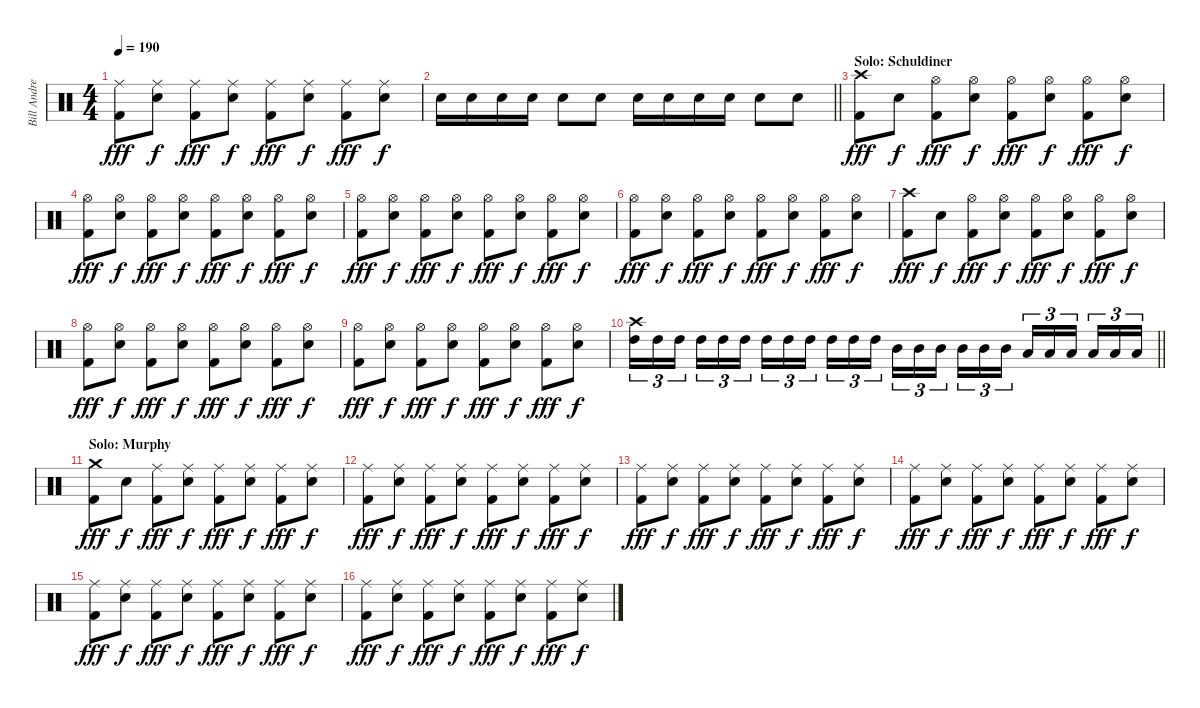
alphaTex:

\track ("Bill Andrews" "Bill Andre") {instrument percussion}
\staff {score}
\articulation defaults
\ts (4 4)
\tempo 190
\clef neutral
\ks c
("Ride (middle)" "Kick (hit) 2").8{dy fff} ("Ride (middle)" "Electric Snare (hit)").8{dy f} ("Ride (middle)" "Kick (hit) 2").8{dy fff} ("Ride (middle)" "Electric Snare (hit)").8{dy f} ("Ride (middle)" "Kick (hit) 2").8{dy fff} ("Ride (middle)" "Electric Snare (hit)").8{dy f} ("Ride (middle)" "Kick (hit) 2").8{dy fff} ("Ride (middle)" "Electric Snare (hit)").8{dy f} |
\barLineRight lightlight "Electric Snare (hit)".16 "Electric Snare (hit)".16 "Electric Snare (hit)".16 "Electric Snare (hit)".16 "Electric Snare (hit)".8 "Electric Snare (hit)".8 "Electric Snare (hit)".16 "Electric Snare (hit)".16 "Electric Snare (hit)".16 "Electric Snare (hit)".16 "Electric Snare (hit)".8 "Electric Snare (hit)".8
|
\section ("" "Solo: Schuldiner")
("Crash high (hit)" "Kick (hit) 2").8{dy fff} "Electric Snare (hit)".8{dy f} ("Hi-Hat (open)" "Kick (hit) 2").8{dy fff} ("Hi-Hat (open)" "Electric Snare (hit)").8{dy f} ("Hi-Hat (open)" "Kick (hit) 2").8{dy fff} ("Hi-Hat (open)" "Electric Snare (hit)").8{dy f} ("Hi-Hat (open)" "Kick (hit) 2").8{dy fff} ("Hi-Hat (open)" "Electric Snare (hit)").8{dy f} |
("Hi-Hat (open)" "Kick (hit) 2").8{dy fff} ("Hi-Hat (open)" "Electric Snare (hit)").8{dy f} ("Hi-Hat (open)" "Kick (hit) 2").8{dy fff} ("Hi-Hat (open)" "Electric Snare (hit)").8{dy f} ("Hi-Hat (open)" "Kick (hit) 2").8{dy fff} ("Hi-Hat (open)" "Electric Snare (hit)").8{dy f} ("Hi-Hat (open)" "Kick (hit) 2").8{dy fff} ("Hi-Hat (open)" "Electric Snare (hit)").8{dy f} |
("Hi-Hat (open)" "Kick (hit) 2").8{dy fff} ("Hi-Hat (open)" "Electric Snare (hit)").8{dy f} ("Hi-Hat (open)" "Kick (hit) 2").8{dy fff} ("Hi-Hat (open)" "Electric Snare (hit)").8{dy f} ("Hi-Hat (open)" "Kick (hit) 2").8{dy fff} ("Hi-Hat (open)" "Electric Snare (hit)").8{dy f} ("Hi-Hat (open)" "Kick (hit) 2").8{dy fff} ("Hi-Hat (open)" "Electric Snare (hit)").8{dy f} |
("Hi-Hat (open)" "Kick (hit) 2").8{dy fff} ("Hi-Hat (open)" "Electric Snare (hit)").8{dy f} ("Hi-Hat (open)" "Kick (hit) 2").8{dy fff} ("Hi-Hat (open)" "Electric Snare (hit)").8{dy f} ("Hi-Hat (open)" "Kick (hit) 2").8{dy fff} ("Hi-Hat (open)" "Electric Snare (hit)").8{dy f} ("Hi-Hat (open)" "Kick (hit) 2").8{dy fff} ("Hi-Hat (open)" "Electric Snare (hit)").8{dy f} |
("Crash high (hit)" "Kick (hit) 2").8{dy fff} "Electric Snare (hit)".8{dy f} ("Hi-Hat (open)" "Kick (hit) 2").8{dy fff} ("Hi-Hat (open)" "Electric Snare (hit)").8{dy f} ("Hi-Hat (open)" "Kick (hit) 2").8{dy fff} ("Hi-Hat (open)" "Electric Snare (hit)").8{dy f} ("Hi-Hat (open)" "Kick (hit) 2").8{dy fff} ("Hi-Hat (open)" "Electric Snare (hit)").8{dy f} |
("Hi-Hat (open)" "Kick (hit) 2").8{dy fff} ("Hi-Hat (open)" "Electric Snare (hit)").8{dy f} ("Hi-Hat (open)" "Kick (hit) 2").8{dy fff} ("Hi-Hat (open)" "Electric Snare (hit)").8{dy f} ("Hi-Hat (open)" "Kick (hit) 2").8{dy fff} ("Hi-Hat (open)" "Electric Snare (hit)").8{dy f} ("Hi-Hat (open)" "Kick (hit) 2").8{dy fff} ("Hi-Hat (open)" "Electric Snare (hit)").8{dy f} |
("Hi-Hat (open)" "Kick (hit) 2").8{dy fff} ("Hi-Hat (open)" "Electric Snare (hit)").8{dy f} ("Hi-Hat (open)" "Kick (hit) 2").8{dy fff} ("Hi-Hat (open)" "Electric Snare (hit)").8{dy f} ("Hi-Hat (open)" "Kick (hit) 2").8{dy fff} ("Hi-Hat (open)" "Electric Snare (hit)").8{dy f} ("Hi-Hat (open)" "Kick (hit) 2").8{dy fff} ("Hi-Hat (open)" "Electric Snare (hit)").8{dy f} |
\barLineRight lightlight
("Crash high (hit)" "High Tom (hit)").16{tu (3 2)} "High Tom (hit)".16{tu (3 2)} "High Tom (hit)".16{tu (3 2) beam splitsecondary} "High Tom (hit)".16{tu (3 2)} "High Tom (hit)".16{tu (3 2)} "High Tom (hit)".16{tu (3 2)} "High Tom (hit)".16{tu (3 2)} "High Tom (hit)".16{tu (3 2)} "High Tom (hit)".16{tu (3 2) beam splitsecondary} "High Tom (hit)".16{tu (3 2)} "High Tom (hit)".16{tu (3 2)} "High Tom (hit)".16{tu (3 2)} "Mid Tom (hit)".16{tu (3 2)} "Mid Tom (hit)".16{tu (3 2)} "Mid Tom (hit)".16{tu (3 2) beam splitsecondary} "Mid Tom (hit)".16{tu (3 2)} "Mid Tom (hit)".16{tu (3 2)} "Mid Tom (hit)".16{tu (3 2)} "Low Tom (hit)".16{tu (3 2)} "Low Tom (hit)".16{tu (3 2)} "Low Tom (hit)".16{tu (3 2) beam splitsecondary} "Low Tom (hit)".16{tu (3 2)} "Low Tom (hit)".16{tu (3 2)} "Low Tom (hit)".16{tu (3 2)} |
\section ("" "Solo: Murphy")
("Crash medium (hit)" "Kick (hit) 2").8{dy fff} "Electric Snare (hit)".8{dy f} ("Ride (middle)" "Kick (hit) 2").8{dy fff} ("Ride (middle)" "Electric Snare (hit)").8{dy f} ("Ride (middle)" "Kick (hit) 2").8{dy fff} ("Ride (middle)" "Electric Snare (hit)").8{dy f} ("Ride (middle)" "Kick (hit) 2").8{dy fff} ("Ride (middle)" "Electric Snare (hit)").8{dy f} |
("Ride (middle)" "Kick (hit) 2").8{dy fff} ("Ride (middle)" "Electric Snare (hit)").8{dy f} ("Ride (middle)" "Kick (hit) 2").8{dy fff} ("Ride (middle)" "Electric Snare (hit)").8{dy f} ("Ride (middle)" "Kick (hit) 2").8{dy fff} ("Ride (middle)" "Electric Snare (hit)").8{dy f} ("Ride (middle)" "Kick (hit) 2").8{dy fff} ("Ride (middle)" "Electric Snare (hit)").8{dy f} |
("Ride (middle)" "Kick (hit) 2").8{dy fff} ("Ride (middle)" "Electric Snare (hit)").8{dy f} ("Ride (middle)" "Kick (hit) 2").8{dy fff} ("Ride (middle)" "Electric Snare (hit)").8{dy f} ("Ride (middle)" "Kick (hit) 2").8{dy fff} ("Ride (middle)" "Electric Snare (hit)").8{dy f} ("Ride (middle)" "Kick (hit) 2").8{dy fff} ("Ride (middle)" "Electric Snare (hit)").8{dy f} |
("Ride (middle)" "Kick (hit) 2").8{dy fff} ("Ride (middle)" "Electric Snare (hit)").8{dy f} ("Ride (middle)" "Kick (hit) 2").8{dy fff} ("Ride (middle)" "Electric Snare (hit)").8{dy f} ("Ride (middle)" "Kick (hit) 2").8{dy fff} ("Ride (middle)" "Electric Snare (hit)").8{dy f} ("Ride (middle)" "Kick (hit) 2").8{dy fff} ("Ride (middle)" "Electric Snare (hit)").8{dy f} |
("Ride (middle)" "Kick (hit) 2").8{dy fff} ("Ride (middle)" "Electric Snare (hit)").8{dy f} ("Ride (middle)" "Kick (hit) 2").8{dy fff} ("Ride (middle)" "Electric Snare (hit)").8{dy f} ("Ride (middle)" "Kick (hit) 2").8{dy fff} ("Ride (middle)" "Electric Snare (hit)").8{dy f} ("Ride (middle)" "Kick (hit) 2").8{dy fff} ("Ride (middle)" "Electric Snare (hit)").8{dy f} |
("Ride (middle)" "Kick (hit) 2").8{dy fff} ("Ride (middle)" "Electric Snare (hit)").8{dy f} ("Ride (middle)" "Kick (hit) 2").8{dy fff} ("Ride (middle)" "Electric Snare (hit)").8{dy f} ("Ride (middle)" "Kick (hit) 2").8{dy fff} ("Ride (middle)" "Electric Snare (hit)").8{dy f} ("Ride (middle)" "Kick (hit) 2").8{dy fff} ("Ride (middle)" "Electric Snare (hit)").8{dy f}
